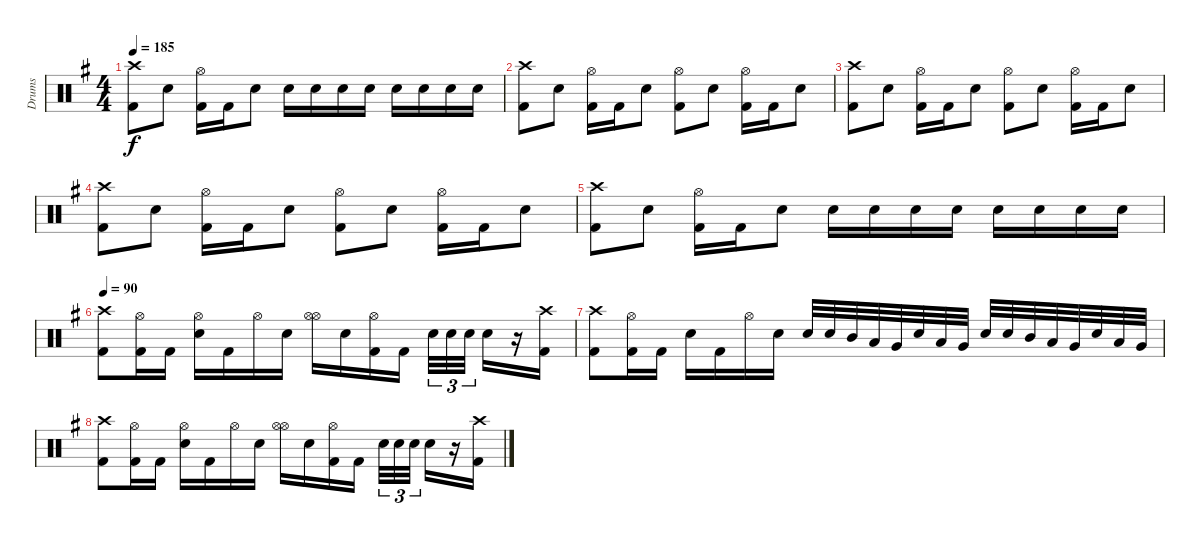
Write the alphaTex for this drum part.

\track ("Drums" "Drums") {instrument percussion}
\staff {score}
\articulation defaults
\ts (4 4)
\tempo 185
\clef neutral
\ks eminor
("Crash high (hit)" "Kick (hit) 2").8{dy f} "Snare (hit) 2".8 ("Hi-Hat (open)" "Kick (hit) 2").16 "Kick (hit) 2".16 "Snare (hit) 2".8 "Snare (hit) 2".16 "Snare (hit) 2".16 "Snare (hit) 2".16 "Snare (hit) 2".16 "Snare (hit) 2".16 "Snare (hit) 2".16 "Snare (hit) 2".16 "Snare (hit) 2".16 |
("Crash high (hit)" "Kick (hit) 2").8 "Snare (hit) 2".8 ("Hi-Hat (open)" "Kick (hit) 2").16 "Kick (hit) 2".16 "Snare (hit) 2".8 ("Hi-Hat (open)" "Kick (hit) 2").8 "Snare (hit) 2".8 ("Hi-Hat (open)" "Kick (hit) 2").16 "Kick (hit) 2".16 "Snare (hit) 2".8 |
("Crash high (hit)" "Kick (hit) 2").8 "Snare (hit) 2".8 ("Hi-Hat (open)" "Kick (hit) 2").16 "Kick (hit) 2".16 "Snare (hit) 2".8 ("Hi-Hat (open)" "Kick (hit) 2").8 "Snare (hit) 2".8 ("Hi-Hat (open)" "Kick (hit) 2").16 "Kick (hit) 2".16 "Snare (hit) 2".8 |
("Crash high (hit)" "Kick (hit) 2").8 "Snare (hit) 2".8 ("Hi-Hat (open)" "Kick (hit) 2").16 "Kick (hit) 2".16 "Snare (hit) 2".8 ("Hi-Hat (open)" "Kick (hit) 2").8 "Snare (hit) 2".8 ("Hi-Hat (open)" "Kick (hit) 2").16 "Kick (hit) 2".16 "Snare (hit) 2".8 |
("Crash high (hit)" "Kick (hit) 2").8 "Snare (hit) 2".8 ("Hi-Hat (open)" "Kick (hit) 2").16 "Kick (hit) 2".16 "Snare (hit) 2".8 "Snare (hit) 2".16 "Snare (hit) 2".16 "Snare (hit) 2".16 "Snare (hit) 2".16 "Snare (hit) 2".16 "Snare (hit) 2".16 "Snare (hit) 2".16 "Snare (hit) 2".16 |
\tempo 90
("Crash high (hit)" "Kick (hit) 2").8 ("Hi-Hat (open)" "Kick (hit) 2").16 "Kick (hit) 2".16 ("Hi-Hat (open)" "Snare (hit) 2").16 "Kick (hit) 2".16 "Hi-Hat (open)".16 "Snare (hit) 2".16 ("Hi-Hat (open)" "Hi-Hat (open)").16 "Snare (hit) 2".16 ("Hi-Hat (open)" "Kick (hit) 2").16 "Kick (hit) 2".16 "Snare (hit) 2".32{tu (3 2)} "Snare (hit) 2".32{tu (3 2)} "Snare (hit) 2".32{tu (3 2)} "Snare (hit) 2".16 r.16 ("Crash high (hit)" "Kick (hit) 2").16 |
("Crash high (hit)" "Kick (hit) 2").8 ("Hi-Hat (open)" "Kick (hit) 2").16 "Kick (hit) 2".16 "Snare (hit) 2".16 "Kick (hit) 2".16 "Hi-Hat (open)".16 "Snare (hit) 2".16 "Snare (hit) 2".32 "Snare (hit) 2".32 "Mid Tom (hit)".32 "Low Tom (hit)".32 "Very Low Tom (hit)".32 "Snare (hit) 2".32 "Low Tom (hit)".32 "Very Low Tom (hit)".32 "Snare (hit) 2".32 "Snare (hit) 2".32 "Mid Tom (hit)".32 "Low Tom (hit)".32 "Very Low Tom (hit)".32 "Snare (hit) 2".32 "Low Tom (hit)".32 "Very Low Tom (hit)".32 |
("Crash high (hit)" "Kick (hit) 2").8 ("Hi-Hat (open)" "Kick (hit) 2").16 "Kick (hit) 2".16 ("Hi-Hat (open)" "Snare (hit) 2").16 "Kick (hit) 2".16 "Hi-Hat (open)".16 "Snare (hit) 2".16 ("Hi-Hat (open)" "Hi-Hat (open)").16 "Snare (hit) 2".16 ("Hi-Hat (open)" "Kick (hit) 2").16 "Kick (hit) 2".16 "Snare (hit) 2".32{tu (3 2)} "Snare (hit) 2".32{tu (3 2)} "Snare (hit) 2".32{tu (3 2)} "Snare (hit) 2".16 r.16 ("Crash high (hit)" "Kick (hit) 2").16
